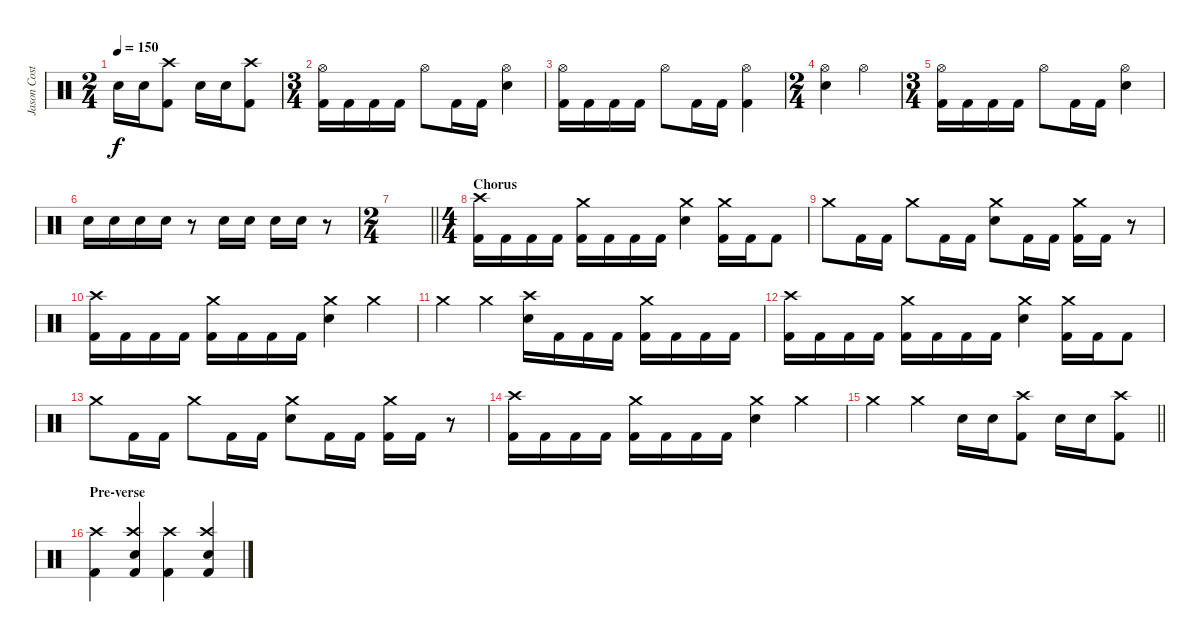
\track ("Jason Costa" "Jason Cost") {instrument percussion}
\staff {score}
\articulation defaults
\ts (2 4)
\tempo 150
\clef neutral
\ks c "Electric Snare (hit)".16{dy f} "Electric Snare (hit)".16
("Crash high (hit)" "Kick (hit) 2").8 "Electric Snare (hit)".16 "Electric Snare (hit)".16 ("Crash high (hit)" "Kick (hit) 2").8 |
\ts (3 4)
("Hi-Hat (open)" "Kick (hit) 2").16 "Kick (hit) 2".16 "Kick (hit) 2".16 "Kick (hit) 2".16 "Hi-Hat (open)".8 "Kick (hit) 2".16 "Kick (hit) 2".16 ("Hi-Hat (open)" "Electric Snare (hit)").4 |
("Hi-Hat (open)" "Kick (hit) 2").16 "Kick (hit) 2".16 "Kick (hit) 2".16 "Kick (hit) 2".16 "Hi-Hat (open)".8 "Kick (hit) 2".16 "Kick (hit) 2".16 ("Hi-Hat (open)" "Kick (hit) 2").4 |
\ts (2 4)
("Hi-Hat (open)" "Electric Snare (hit)").4 "Hi-Hat (open)".4 |
\ts (3 4)
("Hi-Hat (open)" "Kick (hit) 2").16 "Kick (hit) 2".16 "Kick (hit) 2".16 "Kick (hit) 2".16 "Hi-Hat (open)".8 "Kick (hit) 2".16 "Kick (hit) 2".16 ("Hi-Hat (open)" "Electric Snare (hit)").4 |
"Electric Snare (hit)".16 "Electric Snare (hit)".16 "Electric Snare (hit)".16 "Electric Snare (hit)".16 r.8 "Electric Snare (hit)".16 "Electric Snare (hit)".16 "Electric Snare (hit)".16 "Electric Snare (hit)".16 r.8 |
\ts (2 4)
\barLineRight lightlight
|
\ts (4 4)
\section ("" "Chorus")
("Crash high (hit)" "Kick (hit) 2").16 "Kick (hit) 2".16 "Kick (hit) 2".16 "Kick (hit) 2".16 ("Crash medium (hit)" "Kick (hit) 2").16 "Kick (hit) 2".16 "Kick (hit) 2".16 "Kick (hit) 2".16 ("Crash medium (hit)" "Electric Snare (hit)").4 ("Crash medium (hit)" "Kick (hit) 2").16 "Kick (hit) 2".16 "Kick (hit) 2".8 |
"Crash medium (hit)".8 "Kick (hit) 2".16 "Kick (hit) 2".16 "Crash medium (hit)".8 "Kick (hit) 2".16 "Kick (hit) 2".16 ("Crash medium (hit)" "Electric Snare (hit)").8 "Kick (hit) 2".16 "Kick (hit) 2".16 ("Crash medium (hit)" "Kick (hit) 2").16 "Kick (hit) 2".16 r.8 |
("Crash high (hit)" "Kick (hit) 2").16 "Kick (hit) 2".16 "Kick (hit) 2".16 "Kick (hit) 2".16 ("Crash medium (hit)" "Kick (hit) 2").16 "Kick (hit) 2".16 "Kick (hit) 2".16 "Kick (hit) 2".16 ("Crash medium (hit)" "Electric Snare (hit)").4 "Crash medium (hit)".4 |
"Crash medium (hit)".4 "Crash medium (hit)".4 ("Crash high (hit)" "Electric Snare (hit)").16 "Kick (hit) 2".16 "Kick (hit) 2".16 "Kick (hit) 2".16 ("Crash medium (hit)" "Kick (hit) 2").16 "Kick (hit) 2".16 "Kick (hit) 2".16 "Kick (hit) 2".16 |
("Crash high (hit)" "Kick (hit) 2").16 "Kick (hit) 2".16 "Kick (hit) 2".16 "Kick (hit) 2".16 ("Crash medium (hit)" "Kick (hit) 2").16 "Kick (hit) 2".16 "Kick (hit) 2".16 "Kick (hit) 2".16 ("Crash medium (hit)" "Electric Snare (hit)").4 ("Crash medium (hit)" "Kick (hit) 2").16 "Kick (hit) 2".16 "Kick (hit) 2".8 |
"Crash medium (hit)".8 "Kick (hit) 2".16 "Kick (hit) 2".16 "Crash medium (hit)".8 "Kick (hit) 2".16 "Kick (hit) 2".16 ("Crash medium (hit)" "Electric Snare (hit)").8 "Kick (hit) 2".16 "Kick (hit) 2".16 ("Crash medium (hit)" "Kick (hit) 2").16 "Kick (hit) 2".16 r.8 |
("Crash high (hit)" "Kick (hit) 2").16 "Kick (hit) 2".16 "Kick (hit) 2".16 "Kick (hit) 2".16 ("Crash medium (hit)" "Kick (hit) 2").16 "Kick (hit) 2".16 "Kick (hit) 2".16 "Kick (hit) 2".16 ("Crash medium (hit)" "Electric Snare (hit)").4 "Crash medium (hit)".4 |
\barLineRight lightlight "Crash medium (hit)".4 "Crash medium (hit)".4 "Electric Snare (hit)".16 "Electric Snare (hit)".16
("Crash high (hit)" "Kick (hit) 2").8 "Electric Snare (hit)".16 "Electric Snare (hit)".16 ("Crash high (hit)" "Kick (hit) 2").8 |
\section ("" "Pre-verse")
("Crash high (hit)" "Kick (hit) 2").4 ("Crash high (hit)" "Electric Snare (hit)" "Kick (hit) 2").4 ("Crash high (hit)" "Kick (hit) 2").4 ("Crash high (hit)" "Electric Snare (hit)" "Kick (hit) 2").4
